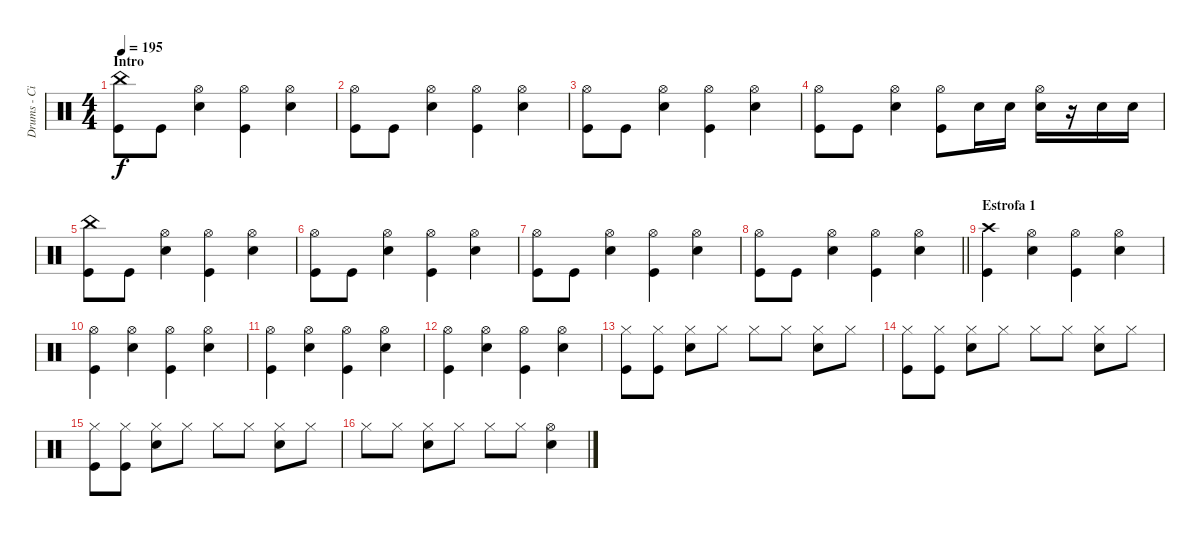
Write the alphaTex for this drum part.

\track ("Drums - Ciro" "Drums - Ci") {instrument percussion}
\staff {score}
\articulation defaults
\ts (4 4)
\section ("" "Intro")
\tempo 195
\clef neutral
\ks c
("China (hit)" "Kick (hit)").8{dy f} "Kick (hit)".8 ("Hi-Hat (open)" "Electric Snare (hit)").4 ("Hi-Hat (open)" "Kick (hit)").4 ("Hi-Hat (open)" "Electric Snare (hit)").4 |
("Hi-Hat (open)" "Kick (hit)").8 "Kick (hit)".8 ("Hi-Hat (open)" "Electric Snare (hit)").4 ("Hi-Hat (open)" "Kick (hit)").4 ("Hi-Hat (open)" "Electric Snare (hit)").4 |
("Hi-Hat (open)" "Kick (hit)").8 "Kick (hit)".8 ("Hi-Hat (open)" "Electric Snare (hit)").4 ("Hi-Hat (open)" "Kick (hit)").4 ("Hi-Hat (open)" "Electric Snare (hit)").4 |
("Hi-Hat (open)" "Kick (hit)").8 "Kick (hit)".8 ("Hi-Hat (open)" "Electric Snare (hit)").4 ("Hi-Hat (open)" "Kick (hit)").8 "Electric Snare (hit)".16 "Electric Snare (hit)".16 ("Hi-Hat (open)" "Electric Snare (hit)").16 r.16 "Electric Snare (hit)".16 "Electric Snare (hit)".16 |
("China (hit)" "Kick (hit)").8 "Kick (hit)".8 ("Hi-Hat (open)" "Electric Snare (hit)").4 ("Hi-Hat (open)" "Kick (hit)").4 ("Hi-Hat (open)" "Electric Snare (hit)").4 |
("Hi-Hat (open)" "Kick (hit)").8 "Kick (hit)".8 ("Hi-Hat (open)" "Electric Snare (hit)").4 ("Hi-Hat (open)" "Kick (hit)").4 ("Hi-Hat (open)" "Electric Snare (hit)").4 |
("Hi-Hat (open)" "Kick (hit)").8 "Kick (hit)".8 ("Hi-Hat (open)" "Electric Snare (hit)").4 ("Hi-Hat (open)" "Kick (hit)").4 ("Hi-Hat (open)" "Electric Snare (hit)").4 |
\barLineRight lightlight
("Hi-Hat (open)" "Kick (hit)").8 "Kick (hit)".8 ("Hi-Hat (open)" "Electric Snare (hit)").4 ("Hi-Hat (open)" "Kick (hit)").4 ("Hi-Hat (open)" "Electric Snare (hit)").4 |
\section ("" "Estrofa 1")
("Crash high (hit)" "Kick (hit)").4 ("Hi-Hat (open)" "Electric Snare (hit)").4 ("Hi-Hat (open)" "Kick (hit)").4 ("Hi-Hat (open)" "Electric Snare (hit)").4 |
("Hi-Hat (open)" "Kick (hit)").4 ("Hi-Hat (open)" "Electric Snare (hit)").4 ("Hi-Hat (open)" "Kick (hit)").4 ("Hi-Hat (open)" "Electric Snare (hit)").4 |
("Hi-Hat (open)" "Kick (hit)").4 ("Hi-Hat (open)" "Electric Snare (hit)").4 ("Hi-Hat (open)" "Kick (hit)").4 ("Hi-Hat (open)" "Electric Snare (hit)").4 |
("Hi-Hat (open)" "Kick (hit)").4 ("Hi-Hat (open)" "Electric Snare (hit)").4 ("Hi-Hat (open)" "Kick (hit)").4 ("Hi-Hat (open)" "Electric Snare (hit)").4 |
("Hi-Hat (closed)" "Kick (hit)").8 ("Hi-Hat (closed)" "Kick (hit)").8 ("Hi-Hat (closed)" "Electric Snare (hit)").8 "Hi-Hat (closed)".8 "Hi-Hat (closed)".8 "Hi-Hat (closed)".8 ("Hi-Hat (closed)" "Electric Snare (hit)").8 "Hi-Hat (closed)".8 |
("Hi-Hat (closed)" "Kick (hit)").8 ("Hi-Hat (closed)" "Kick (hit)").8 ("Hi-Hat (closed)" "Electric Snare (hit)").8 "Hi-Hat (closed)".8 "Hi-Hat (closed)".8 "Hi-Hat (closed)".8 ("Hi-Hat (closed)" "Electric Snare (hit)").8 "Hi-Hat (closed)".8 |
("Hi-Hat (closed)" "Kick (hit)").8 ("Hi-Hat (closed)" "Kick (hit)").8 ("Hi-Hat (closed)" "Electric Snare (hit)").8 "Hi-Hat (closed)".8 "Hi-Hat (closed)".8 "Hi-Hat (closed)".8 ("Hi-Hat (closed)" "Electric Snare (hit)").8 "Hi-Hat (closed)".8 |
"Hi-Hat (closed)".8 "Hi-Hat (closed)".8 ("Hi-Hat (closed)" "Electric Snare (hit)").8 "Hi-Hat (closed)".8 "Hi-Hat (closed)".8 "Hi-Hat (closed)".8 ("Hi-Hat (open)" "Electric Snare (hit)").4
